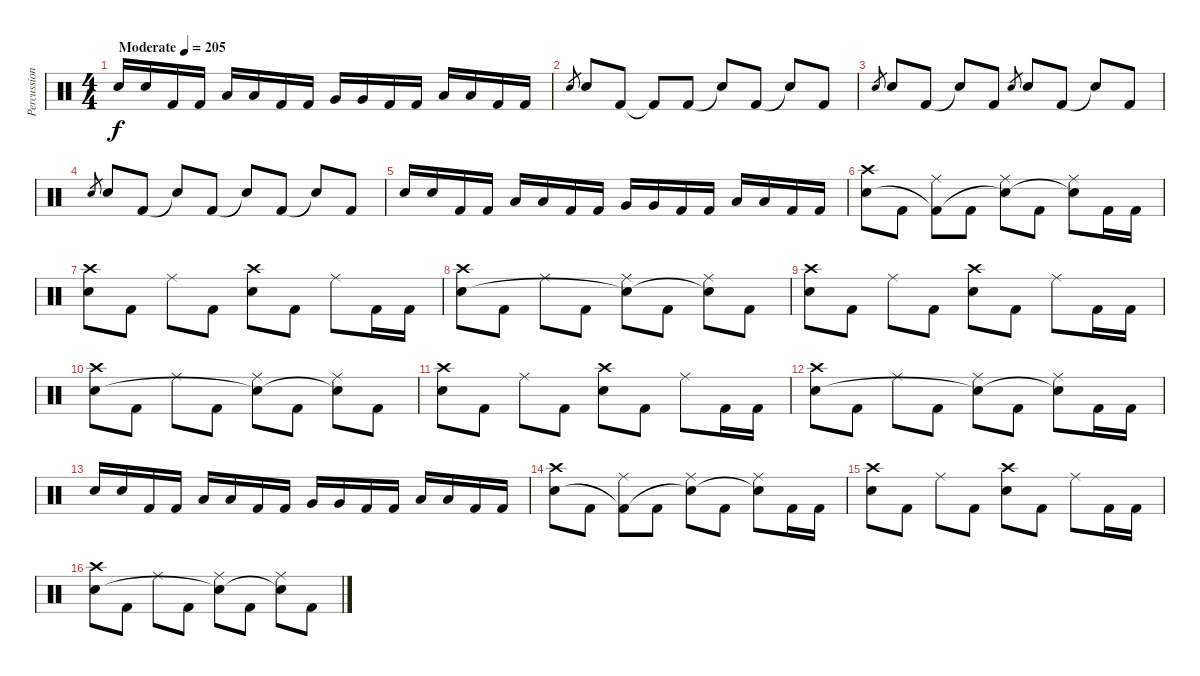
\track ("Percussions" "Percussion") {instrument percussion}
\staff {score}
\articulation defaults
\ts (4 4)
\tempo (205 "Moderate")
\clef neutral
\ks c "Snare (hit) 2".16{dy f} "Snare (hit) 2".16 "Kick (hit) 2".16 "Kick (hit) 2".16 "Low Tom (hit)".16 "Low Tom (hit)".16 "Kick (hit) 2".16 "Kick (hit) 2".16 "Very Low Tom (hit)".16 "Very Low Tom (hit)".16 "Kick (hit) 2".16 "Kick (hit) 2".16 "Low Floor Tom (hit)".16 "Low Floor Tom (hit)".16 "Kick (hit) 2".16 "Kick (hit) 2".16
|
"Snare (hit) 2".8{gr} "Snare (hit) 2".8 "Kick (hit) 2".8 "Kick (hit) 2"{t}.8 "Kick (hit) 2".8 "Snare (hit)"{t}.8 "Kick (hit) 2".8 "Snare (hit)"{t}.8 "Kick (hit) 2".8 |
"Snare (hit) 2".8{gr} "Snare (hit) 2".8 "Kick (hit) 2".8 "Snare (hit)"{t}.8 "Kick (hit) 2".8 "Snare (hit) 2".8{gr} "Snare (hit) 2".8 "Kick (hit) 2".8 "Snare (hit)"{t}.8 "Kick (hit) 2".8 |
"Snare (hit) 2".8{gr} "Snare (hit) 2".8 "Kick (hit) 2".8 "Snare (hit)"{t}.8 "Kick (hit) 2".8 "Snare (hit)"{t}.8 "Kick (hit) 2".8 "Snare (hit)"{t}.8 "Kick (hit) 2".8 |
"Snare (hit) 2".16 "Snare (hit) 2".16 "Kick (hit) 2".16 "Kick (hit) 2".16 "Low Tom (hit)".16 "Low Tom (hit)".16 "Kick (hit) 2".16 "Kick (hit) 2".16 "Very Low Tom (hit)".16 "Very Low Tom (hit)".16 "Kick (hit) 2".16 "Kick (hit) 2".16 "Low Floor Tom (hit)".16 "Low Floor Tom (hit)".16 "Kick (hit) 2".16 "Kick (hit) 2".16 |
("Crash high (hit)" "Snare (hit) 2").8 "Kick (hit) 2".8 ("Ride (middle)" "Kick (hit) 2"{t}).8 "Kick (hit) 2".8 ("Ride (middle)" "Snare (hit)"{t}).8 "Kick (hit) 2".8 ("Ride (middle)" "Snare (hit)"{t}).8 "Kick (hit) 2".16 "Kick (hit) 2".16 |
("Crash high (hit)" "Snare (hit) 2").8 "Kick (hit) 2".8 "Ride (middle)".8 "Kick (hit) 2".8 ("Crash high (hit)" "Snare (hit) 2").8 "Kick (hit) 2".8 "Ride (middle)".8 "Kick (hit) 2".16 "Kick (hit) 2".16 |
("Crash high (hit)" "Snare (hit) 2").8 "Kick (hit) 2".8 "Ride (middle)".8 "Kick (hit) 2".8 ("Ride (middle)" "Snare (hit)"{t}).8 "Kick (hit) 2".8 ("Ride (middle)" "Snare (hit)"{t}).8 "Kick (hit) 2".8 |
("Crash high (hit)" "Snare (hit) 2").8 "Kick (hit) 2".8 "Ride (middle)".8 "Kick (hit) 2".8 ("Crash high (hit)" "Snare (hit) 2").8 "Kick (hit) 2".8 "Ride (middle)".8 "Kick (hit) 2".16 "Kick (hit) 2".16 |
("Crash high (hit)" "Snare (hit) 2").8 "Kick (hit) 2".8 "Ride (middle)".8 "Kick (hit) 2".8 ("Ride (middle)" "Snare (hit)"{t}).8 "Kick (hit) 2".8 ("Ride (middle)" "Snare (hit)"{t}).8 "Kick (hit) 2".8 |
("Crash high (hit)" "Snare (hit) 2").8 "Kick (hit) 2".8 "Ride (middle)".8 "Kick (hit) 2".8 ("Crash high (hit)" "Snare (hit) 2").8 "Kick (hit) 2".8 "Ride (middle)".8 "Kick (hit) 2".16 "Kick (hit) 2".16 |
("Crash high (hit)" "Snare (hit) 2").8 "Kick (hit) 2".8 "Ride (middle)".8 "Kick (hit) 2".8 ("Ride (middle)" "Snare (hit)"{t}).8 "Kick (hit) 2".8 ("Ride (middle)" "Snare (hit)"{t}).8 "Kick (hit) 2".16 "Kick (hit) 2".16 |
"Snare (hit) 2".16 "Snare (hit) 2".16 "Kick (hit) 2".16 "Kick (hit) 2".16 "Low Tom (hit)".16 "Low Tom (hit)".16 "Kick (hit) 2".16 "Kick (hit) 2".16 "Very Low Tom (hit)".16 "Very Low Tom (hit)".16 "Kick (hit) 2".16 "Kick (hit) 2".16 "Low Floor Tom (hit)".16 "Low Floor Tom (hit)".16 "Kick (hit) 2".16 "Kick (hit) 2".16 |
("Crash high (hit)" "Snare (hit) 2").8 "Kick (hit) 2".8 ("Ride (middle)" "Kick (hit) 2"{t}).8 "Kick (hit) 2".8 ("Ride (middle)" "Snare (hit)"{t}).8 "Kick (hit) 2".8 ("Ride (middle)" "Snare (hit)"{t}).8 "Kick (hit) 2".16 "Kick (hit) 2".16 |
("Crash high (hit)" "Snare (hit) 2").8 "Kick (hit) 2".8 "Ride (middle)".8 "Kick (hit) 2".8 ("Crash high (hit)" "Snare (hit) 2").8 "Kick (hit) 2".8 "Ride (middle)".8 "Kick (hit) 2".16 "Kick (hit) 2".16 |
("Crash high (hit)" "Snare (hit) 2").8 "Kick (hit) 2".8 "Ride (middle)".8 "Kick (hit) 2".8 ("Ride (middle)" "Snare (hit)"{t}).8 "Kick (hit) 2".8 ("Ride (middle)" "Snare (hit)"{t}).8 "Kick (hit) 2".8
